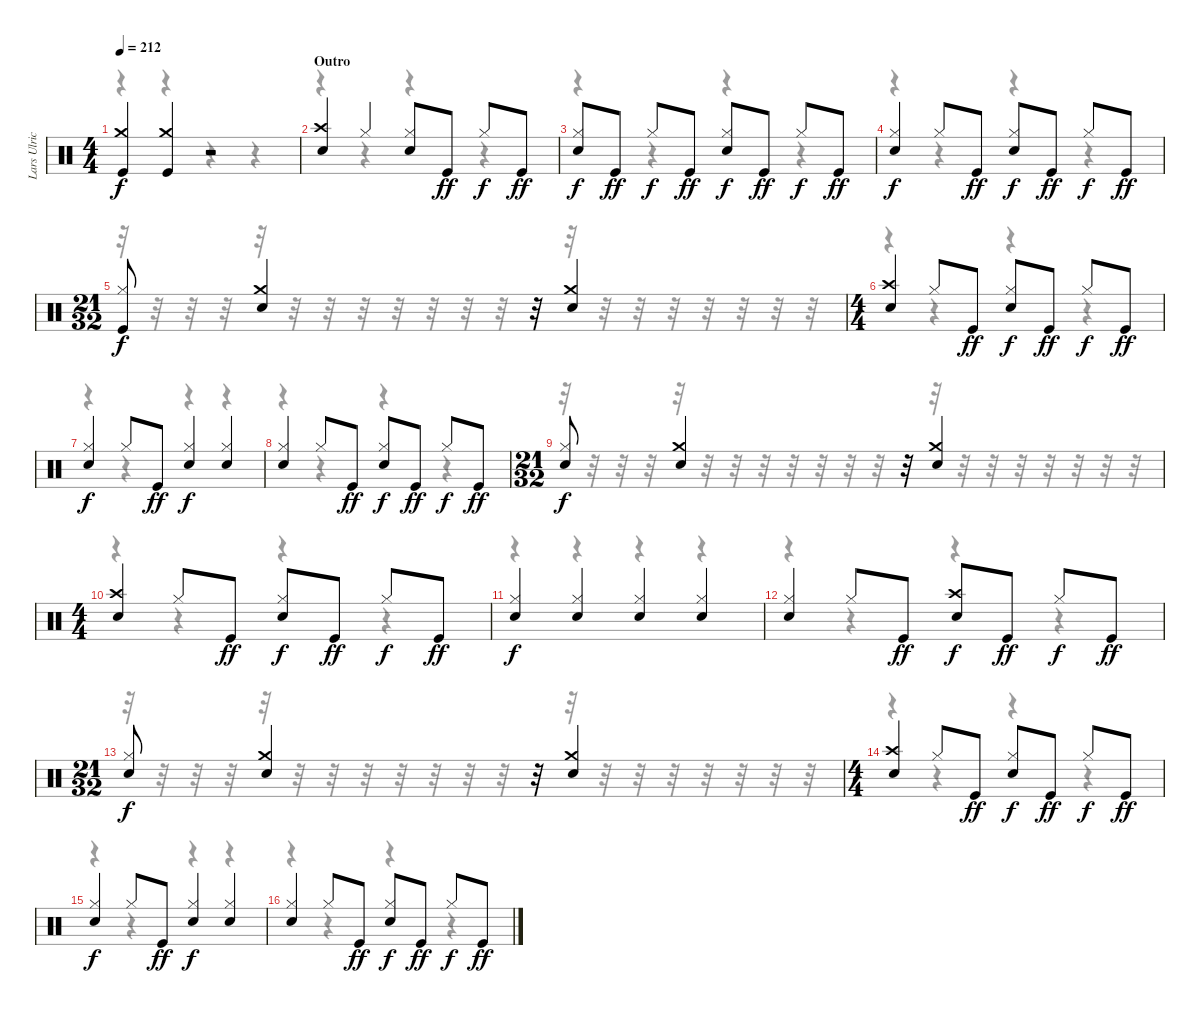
\track ("Lars Ulrich" "Lars Ulric") {instrument percussion}
\staff {score}
\articulation defaults
\voice
\ts (4 4)
\tempo 212
\clef neutral
\ks c
("Crash medium (hit)" "Kick (hit)").4{dy f} ("Crash medium (hit)" "Kick (hit)").4 r.2 |
\section ("" "Outro")
("Crash high (hit)" "Snare (hit) 2").4 "Hi-Hat (closed)".4 ("Hi-Hat (closed)" "Snare (hit) 2").8 "Kick (hit)".8{dy ff} "Hi-Hat (closed)".8{dy f} "Kick (hit)".8{dy ff} |
("Hi-Hat (closed)" "Snare (hit) 2").8{dy f} "Kick (hit)".8{dy ff} "Hi-Hat (closed)".8{dy f} "Kick (hit)".8{dy ff} ("Hi-Hat (closed)" "Snare (hit) 2").8{dy f} "Kick (hit)".8{dy ff} "Hi-Hat (closed)".8{dy f} "Kick (hit)".8{dy ff} |
("Hi-Hat (closed)" "Snare (hit) 2").4{dy f} "Hi-Hat (closed)".8 "Kick (hit)".8{dy ff} ("Hi-Hat (closed)" "Snare (hit) 2").8{dy f} "Kick (hit)".8{dy ff} "Hi-Hat (closed)".8{dy f} "Kick (hit)".8{dy ff} |
\ts (21 32)
("Hi-Hat (closed)" "Kick (hit)").8{dy f} ("Crash medium (hit)" "Snare (hit) 2").4 r.32 ("Crash medium (hit)" "Snare (hit) 2").4 |
\ts (4 4)
("Crash high (hit)" "Snare (hit) 2").4 "Hi-Hat (closed)".8 "Kick (hit)".8{dy ff} ("Hi-Hat (closed)" "Snare (hit) 2").8{dy f} "Kick (hit)".8{dy ff} "Hi-Hat (closed)".8{dy f} "Kick (hit)".8{dy ff} |
("Hi-Hat (closed)" "Snare (hit) 2").4{dy f} "Hi-Hat (closed)".8 "Kick (hit)".8{dy ff} ("Hi-Hat (closed)" "Snare (hit) 2").4{dy f} ("Hi-Hat (closed)" "Snare (hit) 2").4 |
("Hi-Hat (closed)" "Snare (hit) 2").4 "Hi-Hat (closed)".8 "Kick (hit)".8{dy ff} ("Hi-Hat (closed)" "Snare (hit) 2").8{dy f} "Kick (hit)".8{dy ff} "Hi-Hat (closed)".8{dy f} "Kick (hit)".8{dy ff} |
\ts (21 32)
("Hi-Hat (closed)" "Snare (hit) 2").8{dy f} ("Crash medium (hit)" "Snare (hit) 2").4 r.32 ("Crash medium (hit)" "Snare (hit) 2").4 |
\ts (4 4)
("Crash high (hit)" "Snare (hit) 2").4 "Hi-Hat (closed)".8 "Kick (hit)".8{dy ff} ("Hi-Hat (closed)" "Snare (hit) 2").8{dy f} "Kick (hit)".8{dy ff} "Hi-Hat (closed)".8{dy f} "Kick (hit)".8{dy ff} |
("Hi-Hat (closed)" "Snare (hit) 2").4{dy f} ("Hi-Hat (closed)" "Snare (hit) 2").4 ("Hi-Hat (closed)" "Snare (hit) 2").4 ("Hi-Hat (closed)" "Snare (hit) 2").4 |
("Hi-Hat (closed)" "Snare (hit) 2").4 "Hi-Hat (closed)".8 "Kick (hit)".8{dy ff} ("Crash high (hit)" "Snare (hit) 2").8{dy f} "Kick (hit)".8{dy ff} "Hi-Hat (closed)".8{dy f} "Kick (hit)".8{dy ff} |
\ts (21 32)
("Hi-Hat (closed)" "Snare (hit) 2").8{dy f} ("Crash medium (hit)" "Snare (hit) 2").4 r.32 ("Crash medium (hit)" "Snare (hit) 2").4 |
\ts (4 4)
("Crash high (hit)" "Snare (hit) 2").4 "Hi-Hat (closed)".8 "Kick (hit)".8{dy ff} ("Hi-Hat (closed)" "Snare (hit) 2").8{dy f} "Kick (hit)".8{dy ff} "Hi-Hat (closed)".8{dy f} "Kick (hit)".8{dy ff} |
("Hi-Hat (closed)" "Snare (hit) 2").4{dy f} "Hi-Hat (closed)".8 "Kick (hit)".8{dy ff} ("Hi-Hat (closed)" "Snare (hit) 2").4{dy f} ("Hi-Hat (closed)" "Snare (hit) 2").4 |
("Hi-Hat (closed)" "Snare (hit) 2").4 "Hi-Hat (closed)".8 "Kick (hit)".8{dy ff} ("Hi-Hat (closed)" "Snare (hit) 2").8{dy f} "Kick (hit)".8{dy ff} "Hi-Hat (closed)".8{dy f} "Kick (hit)".8{dy ff}
\voice
\clef neutral
\ottava regular
\simile none
\ks c
r.4{dy f} r.4 r.4 r.4 |
r.4 r.4 r.4 r.4 |
r.4 r.4 r.4 r.4 |
r.4 r.4 r.4 r.4 |
r.32 r.32 r.32 r.32 r.32 r.32 r.32 r.32 r.32 r.32 r.32 r.32 r.32 r.32 r.32 r.32 r.32 r.32 r.32 r.32 r.32 |
r.4 r.4 r.4 r.4 |
r.4 r.4 r.4 r.4 |
r.4 r.4 r.4 r.4 |
r.32 r.32 r.32 r.32 r.32 r.32 r.32 r.32 r.32 r.32 r.32 r.32 r.32 r.32 r.32 r.32 r.32 r.32 r.32 r.32 r.32 |
r.4 r.4 r.4 r.4 |
r.4 r.4 r.4 r.4 |
r.4 r.4 r.4 r.4 |
r.32 r.32 r.32 r.32 r.32 r.32 r.32 r.32 r.32 r.32 r.32 r.32 r.32 r.32 r.32 r.32 r.32 r.32 r.32 r.32 r.32 |
r.4 r.4 r.4 r.4 |
r.4 r.4 r.4 r.4 |
r.4 r.4 r.4 r.4
